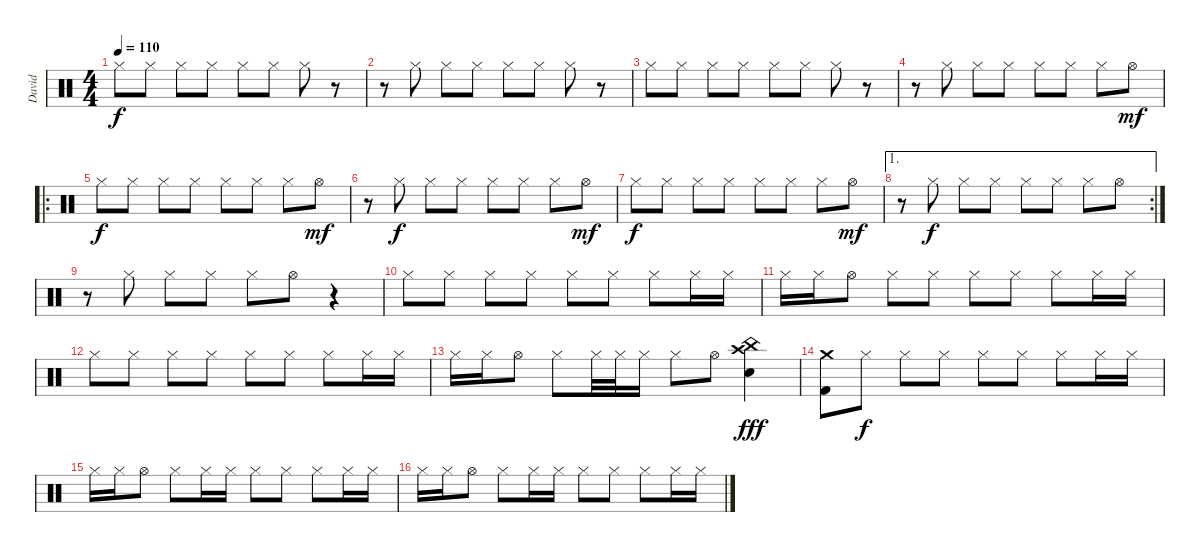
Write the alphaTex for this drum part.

\track ("David" "David") {instrument percussion}
\staff {score}
\articulation defaults
\ts (4 4)
\tempo 110
\clef neutral
\ks c "Hi-Hat (closed)".8{dy f} "Hi-Hat (closed)".8 "Hi-Hat (closed)".8 "Hi-Hat (closed)".8 "Hi-Hat (closed)".8 "Hi-Hat (closed)".8 "Hi-Hat (closed)".8
r.8 |
r.8 "Hi-Hat (closed)".8 "Hi-Hat (closed)".8 "Hi-Hat (closed)".8 "Hi-Hat (closed)".8 "Hi-Hat (closed)".8 "Hi-Hat (closed)".8 r.8 |
"Hi-Hat (closed)".8 "Hi-Hat (closed)".8 "Hi-Hat (closed)".8 "Hi-Hat (closed)".8 "Hi-Hat (closed)".8 "Hi-Hat (closed)".8 "Hi-Hat (closed)".8 r.8 |
r.8 "Hi-Hat (closed)".8 "Hi-Hat (closed)".8 "Hi-Hat (closed)".8 "Hi-Hat (closed)".8 "Hi-Hat (closed)".8 "Hi-Hat (closed)".8 "Hi-Hat (open)".8{dy mf} |
\ro "Hi-Hat (closed)".8{dy f} "Hi-Hat (closed)".8 "Hi-Hat (closed)".8 "Hi-Hat (closed)".8 "Hi-Hat (closed)".8 "Hi-Hat (closed)".8 "Hi-Hat (closed)".8 "Hi-Hat (open)".8{dy mf}
|
r.8 "Hi-Hat (closed)".8{dy f} "Hi-Hat (closed)".8 "Hi-Hat (closed)".8 "Hi-Hat (closed)".8 "Hi-Hat (closed)".8 "Hi-Hat (closed)".8 "Hi-Hat (open)".8{dy mf} |
"Hi-Hat (closed)".8{dy f} "Hi-Hat (closed)".8 "Hi-Hat (closed)".8 "Hi-Hat (closed)".8 "Hi-Hat (closed)".8 "Hi-Hat (closed)".8 "Hi-Hat (closed)".8 "Hi-Hat (open)".8{dy mf} |
\ae 1
\rc 2
r.8 "Hi-Hat (closed)".8{dy f} "Hi-Hat (closed)".8 "Hi-Hat (closed)".8 "Hi-Hat (closed)".8 "Hi-Hat (closed)".8 "Hi-Hat (closed)".8 "Hi-Hat (open)".8 |
r.8 "Hi-Hat (closed)".8 "Hi-Hat (closed)".8 "Hi-Hat (closed)".8 "Hi-Hat (closed)".8 "Hi-Hat (open)".8 r.4 |
"Hi-Hat (closed)".8 "Hi-Hat (closed)".8 "Hi-Hat (closed)".8 "Hi-Hat (closed)".8 "Hi-Hat (closed)".8 "Hi-Hat (closed)".8 "Hi-Hat (closed)".8 "Hi-Hat (closed)".16 "Hi-Hat (closed)".16 |
"Hi-Hat (closed)".16 "Hi-Hat (closed)".16 "Hi-Hat (open)".8 "Hi-Hat (closed)".8 "Hi-Hat (closed)".8 "Hi-Hat (closed)".8 "Hi-Hat (closed)".8 "Hi-Hat (closed)".8 "Hi-Hat (closed)".16 "Hi-Hat (closed)".16 |
"Hi-Hat (closed)".8 "Hi-Hat (closed)".8 "Hi-Hat (closed)".8 "Hi-Hat (closed)".8 "Hi-Hat (closed)".8 "Hi-Hat (closed)".8 "Hi-Hat (closed)".8 "Hi-Hat (closed)".16 "Hi-Hat (closed)".16 |
"Hi-Hat (closed)".16 "Hi-Hat (closed)".16 "Hi-Hat (open)".8 "Hi-Hat (closed)".8 "Hi-Hat (closed)".32 "Hi-Hat (closed)".32 "Hi-Hat (closed)".16 "Hi-Hat (closed)".8 "Hi-Hat (open)".8 ("China (hit)" "Snare (hit) 2" "Crash high (hit)").4{dy fff} |
("Crash medium (hit)" "Kick (hit) 2").8 "Hi-Hat (closed)".8{dy f} "Hi-Hat (closed)".8 "Hi-Hat (closed)".8 "Hi-Hat (closed)".8 "Hi-Hat (closed)".8 "Hi-Hat (closed)".8 "Hi-Hat (closed)".16 "Hi-Hat (closed)".16 |
"Hi-Hat (closed)".16 "Hi-Hat (closed)".16 "Hi-Hat (open)".8 "Hi-Hat (closed)".8 "Hi-Hat (closed)".16 "Hi-Hat (closed)".16 "Hi-Hat (closed)".8 "Hi-Hat (closed)".8 "Hi-Hat (closed)".8 "Hi-Hat (closed)".16 "Hi-Hat (closed)".16 |
"Hi-Hat (closed)".16 "Hi-Hat (closed)".16 "Hi-Hat (open)".8 "Hi-Hat (closed)".8 "Hi-Hat (closed)".16 "Hi-Hat (closed)".16 "Hi-Hat (closed)".8 "Hi-Hat (closed)".8 "Hi-Hat (closed)".8 "Hi-Hat (closed)".16 "Hi-Hat (closed)".16
